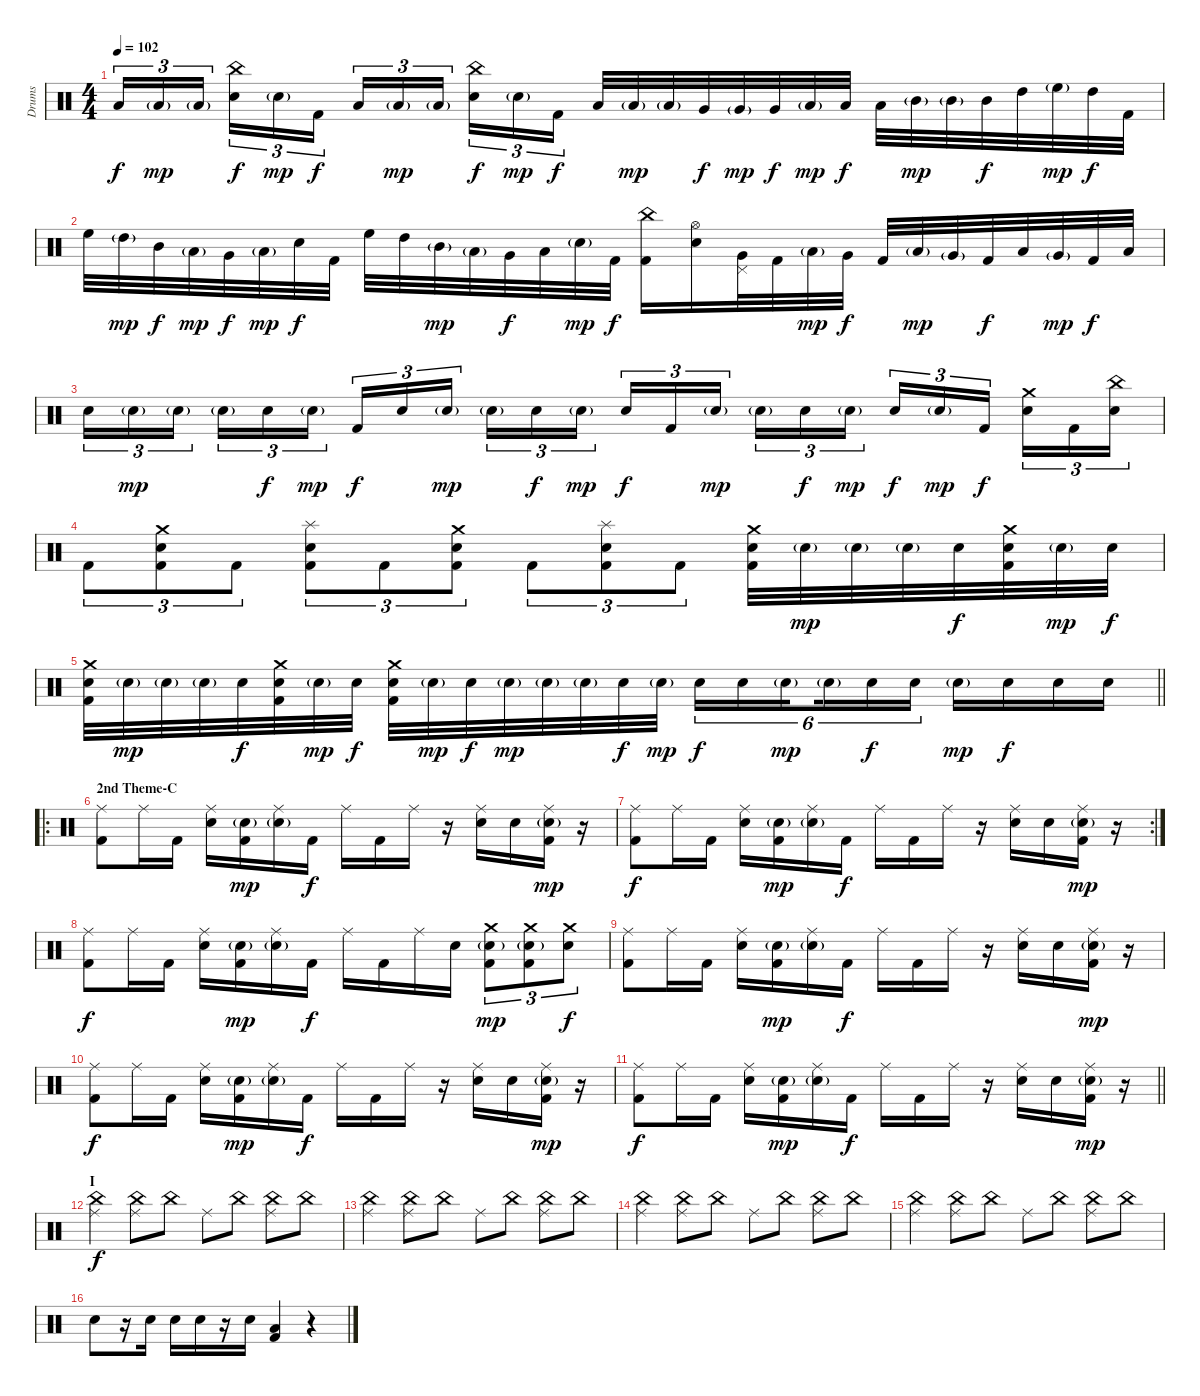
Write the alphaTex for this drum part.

\track ("Drums" "Drums") {instrument percussion}
\staff {score}
\articulation defaults
\ts (4 4)
\tempo 102
\clef neutral
\ks c "Low Floor Tom (hit)".16{tu (3 2) dy f} "Low Floor Tom (hit)"{g}.16{tu (3 2) dy mp} "Low Floor Tom (hit)"{g}.16{tu (3 2) beam splitsecondary}
("China (hit)" "Electric Snare (hit)").16{tu (3 2) dy f} "Electric Snare (hit)"{g}.16{tu (3 2) dy mp} "Kick (hit) 2".16{tu (3 2) dy f} "Low Floor Tom (hit)".16{tu (3 2)} "Low Floor Tom (hit)"{g}.16{tu (3 2) dy mp} "Low Floor Tom (hit)"{g}.16{tu (3 2) beam splitsecondary} ("China (hit)" "Electric Snare (hit)").16{tu (3 2) dy f} "Electric Snare (hit)"{g}.16{tu (3 2) dy mp} "Kick (hit) 2".16{tu (3 2) dy f} "Low Floor Tom (hit)".32 "Low Floor Tom (hit)"{g}.32{dy mp} "Low Floor Tom (hit)"{g}.32 "Very Low Tom (hit)".32{dy f} "Very Low Tom (hit)"{g}.32{dy mp} "Very Low Tom (hit)".32{dy f} "Low Tom (hit)"{g}.32{dy mp} "Low Tom (hit)".32{dy f} "Low Tom (hit)".32 "Mid Tom (hit)"{g}.32{dy mp} "Mid Tom (hit)"{g}.32 "Mid Tom (hit)".32{dy f} "High Tom (hit)".32 "High Floor Tom (hit)"{g}.32{dy mp} "High Tom (hit)".32{dy f} "Kick (hit) 2".32 |
"High Floor Tom (hit)".32 "High Tom (hit)"{g}.32{dy mp} "Mid Tom (hit)".32{dy f} "Low Tom (hit)"{g}.32{dy mp} "Very Low Tom (hit)".32{dy f} "Low Floor Tom (hit)"{g}.32{dy mp} "Electric Snare (hit)".32{dy f} "Kick (hit) 2".32 "High Floor Tom (hit)".32 "High Tom (hit)".32 "Mid Tom (hit)"{g}.32{dy mp} "Low Tom (hit)"{g}.32 "Very Low Tom (hit)".32{dy f} "Low Floor Tom (hit)".32 "Electric Snare (hit)"{g}.32{dy mp} "Kick (hit) 2".32{dy f} ("China (hit)" "Kick (hit) 2").16 ("Hi-Hat (open)" "Electric Snare (hit)").16 ("Pedal Hi-Hat (hit)" "Very Low Tom (hit)").32 "Kick (hit) 2".32 "Low Floor Tom (hit)"{g}.32{dy mp} "Very Low Tom (hit)".32{dy f} "Kick (hit) 2".32 "Low Floor Tom (hit)"{g}.32{dy mp} "Very Low Tom (hit)"{g}.32 "Kick (hit) 2".32{dy f} "Low Floor Tom (hit)".32 "Very Low Tom (hit)"{g}.32{dy mp} "Kick (hit) 2".32{dy f} "Low Floor Tom (hit)".32 |
"Electric Snare (hit)".16{tu (3 2)} "Electric Snare (hit)"{g}.16{tu (3 2) dy mp} "Electric Snare (hit)"{g}.16{tu (3 2) beam splitsecondary} "Electric Snare (hit)"{g}.16{tu (3 2)} "Electric Snare (hit)".16{tu (3 2) dy f} "Electric Snare (hit)"{g}.16{tu (3 2) dy mp} "Kick (hit) 2".16{tu (3 2) dy f} "Electric Snare (hit)".16{tu (3 2)} "Electric Snare (hit)"{g}.16{tu (3 2) dy mp beam splitsecondary} "Electric Snare (hit)"{g}.16{tu (3 2)} "Electric Snare (hit)".16{tu (3 2) dy f} "Electric Snare (hit)"{g}.16{tu (3 2) dy mp} "Electric Snare (hit)".16{tu (3 2) dy f} "Kick (hit) 2".16{tu (3 2)} "Electric Snare (hit)"{g}.16{tu (3 2) dy mp beam splitsecondary} "Electric Snare (hit)"{g}.16{tu (3 2)} "Electric Snare (hit)".16{tu (3 2) dy f} "Electric Snare (hit)"{g}.16{tu (3 2) dy mp} "Electric Snare (hit)".16{tu (3 2) dy f} "Electric Snare (hit)"{g}.16{tu (3 2) dy mp} "Kick (hit) 2".16{tu (3 2) dy f beam splitsecondary} ("Crash medium (hit)" "Electric Snare (hit)").16{tu (3 2)} "Kick (hit) 2".16{tu (3 2)} ("China (hit)" "Electric Snare (hit)").16{tu (3 2)} |
"Kick (hit) 2".8{tu (3 2)} ("Crash medium (hit)" "Electric Snare (hit)" "Kick (hit) 2").8{tu (3 2)} "Kick (hit) 2".8{tu (3 2)} ("Splash (hit)" "Electric Snare (hit)" "Kick (hit) 2").8{tu (3 2)} "Kick (hit) 2".8{tu (3 2)} ("Crash medium (hit)" "Electric Snare (hit)" "Kick (hit) 2").8{tu (3 2)} "Kick (hit) 2".8{tu (3 2)} ("Splash (hit)" "Electric Snare (hit)" "Kick (hit) 2").8{tu (3 2)} "Kick (hit) 2".8{tu (3 2)} ("Crash medium (hit)" "Electric Snare (hit)" "Kick (hit) 2").32 "Electric Snare (hit)"{g}.32{dy mp} "Electric Snare (hit)"{g}.32 "Electric Snare (hit)"{g}.32 "Electric Snare (hit)".32{dy f} ("Crash medium (hit)" "Electric Snare (hit)" "Kick (hit) 2").32 "Electric Snare (hit)"{g}.32{dy mp} "Electric Snare (hit)".32{dy f} |
\barLineRight lightlight
("Crash medium (hit)" "Electric Snare (hit)" "Kick (hit) 2").32 "Electric Snare (hit)"{g}.32{dy mp} "Electric Snare (hit)"{g}.32 "Electric Snare (hit)"{g}.32 "Electric Snare (hit)".32{dy f} ("Crash medium (hit)" "Electric Snare (hit)" "Kick (hit) 2").32 "Electric Snare (hit)"{g}.32{dy mp} "Electric Snare (hit)".32{dy f} ("Crash medium (hit)" "Electric Snare (hit)" "Kick (hit) 2").32 "Electric Snare (hit)"{g}.32{dy mp} "Electric Snare (hit)".32{dy f} "Electric Snare (hit)"{g}.32{dy mp} "Electric Snare (hit)"{g}.32 "Electric Snare (hit)"{g}.32 "Electric Snare (hit)".32{dy f} "Electric Snare (hit)"{g}.32{dy mp} "Electric Snare (hit)".16{tu (6 4) dy f} "Electric Snare (hit)".16{tu (6 4)} "Electric Snare (hit)"{g}.16{tu (6 4) dy mp beam splitsecondary} "Electric Snare (hit)"{g}.16{tu (6 4)} "Electric Snare (hit)".16{tu (6 4) dy f} "Electric Snare (hit)".16{tu (6 4)} "Electric Snare (hit)"{g}.16{dy mp} "Electric Snare (hit)".16{dy f} "Electric Snare (hit)".16 "Electric Snare (hit)".16 |
\ro
\section ("" "2nd Theme-C")
("Ride (middle)" "Kick (hit) 2").8 "Ride (middle)".16 "Kick (hit) 2".16 ("Ride (middle)" "Electric Snare (hit)").16 ("Electric Snare (hit)"{g} "Kick (hit) 2").16{dy mp} ("Ride (middle)" "Electric Snare (hit)"{g}).16 "Kick (hit) 2".16{dy f} "Ride (middle)".16 "Kick (hit) 2".16 "Ride (middle)".16 r.16 ("Ride (middle)" "Electric Snare (hit)").16 "Electric Snare (hit)".16 ("Ride (middle)" "Electric Snare (hit)"{g} "Kick (hit) 2").16{dy mp} r.16 |
\rc 2
("Ride (middle)" "Kick (hit) 2").8{dy f} "Ride (middle)".16 "Kick (hit) 2".16 ("Ride (middle)" "Electric Snare (hit)").16 ("Electric Snare (hit)"{g} "Kick (hit) 2").16{dy mp} ("Ride (middle)" "Electric Snare (hit)"{g}).16 "Kick (hit) 2".16{dy f} "Ride (middle)".16 "Kick (hit) 2".16 "Ride (middle)".16 r.16 ("Ride (middle)" "Electric Snare (hit)").16 "Electric Snare (hit)".16 ("Ride (middle)" "Electric Snare (hit)"{g} "Kick (hit) 2").16{dy mp} r.16 |
("Ride (middle)" "Kick (hit) 2").8{dy f} "Ride (middle)".16 "Kick (hit) 2".16 ("Ride (middle)" "Electric Snare (hit)").16 ("Electric Snare (hit)"{g} "Kick (hit) 2").16{dy mp} ("Ride (middle)" "Electric Snare (hit)"{g}).16 "Kick (hit) 2".16{dy f} "Ride (middle)".16 "Kick (hit) 2".16 "Ride (middle)".16 "Electric Snare (hit)".16 ("Crash medium (hit)" "Electric Snare (hit)"{g} "Kick (hit) 2").8{tu (3 2) dy mp} ("Crash medium (hit)" "Electric Snare (hit)"{g} "Kick (hit) 2").8{tu (3 2)} ("Crash medium (hit)" "Electric Snare (hit)").8{tu (3 2) dy f} |
("Ride (middle)" "Kick (hit) 2").8 "Ride (middle)".16 "Kick (hit) 2".16 ("Ride (middle)" "Electric Snare (hit)").16 ("Electric Snare (hit)"{g} "Kick (hit) 2").16{dy mp} ("Ride (middle)" "Electric Snare (hit)"{g}).16 "Kick (hit) 2".16{dy f} "Ride (middle)".16 "Kick (hit) 2".16 "Ride (middle)".16 r.16 ("Ride (middle)" "Electric Snare (hit)").16 "Electric Snare (hit)".16 ("Ride (middle)" "Electric Snare (hit)"{g} "Kick (hit) 2").16{dy mp} r.16 |
("Ride (middle)" "Kick (hit) 2").8{dy f} "Ride (middle)".16 "Kick (hit) 2".16 ("Ride (middle)" "Electric Snare (hit)").16 ("Electric Snare (hit)"{g} "Kick (hit) 2").16{dy mp} ("Ride (middle)" "Electric Snare (hit)"{g}).16 "Kick (hit) 2".16{dy f} "Ride (middle)".16 "Kick (hit) 2".16 "Ride (middle)".16 r.16 ("Ride (middle)" "Electric Snare (hit)").16 "Electric Snare (hit)".16 ("Ride (middle)" "Electric Snare (hit)"{g} "Kick (hit) 2").16{dy mp} r.16 |
\barLineRight lightlight
("Ride (middle)" "Kick (hit) 2").8{dy f} "Ride (middle)".16 "Kick (hit) 2".16 ("Ride (middle)" "Electric Snare (hit)").16 ("Electric Snare (hit)"{g} "Kick (hit) 2").16{dy mp} ("Ride (middle)" "Electric Snare (hit)"{g}).16 "Kick (hit) 2".16{dy f} "Ride (middle)".16 "Kick (hit) 2".16 "Ride (middle)".16 r.16 ("Ride (middle)" "Electric Snare (hit)").16 "Electric Snare (hit)".16 ("Ride (middle)" "Electric Snare (hit)"{g} "Kick (hit) 2").16{dy mp} r.16 |
\section ("" "I")
("Ride (middle)" "China (hit)").4{dy f} ("Ride (middle)" "China (hit)").8 "China (hit)".8 "Ride (middle)".8 "China (hit)".8 ("Ride (middle)" "China (hit)").8 "China (hit)".8 |
("Ride (middle)" "China (hit)").4 ("Ride (middle)" "China (hit)").8 "China (hit)".8 "Ride (middle)".8 "China (hit)".8 ("Ride (middle)" "China (hit)").8 "China (hit)".8 |
("Ride (middle)" "China (hit)").4 ("Ride (middle)" "China (hit)").8 "China (hit)".8 "Ride (middle)".8 "China (hit)".8 ("Ride (middle)" "China (hit)").8 "China (hit)".8 |
("Ride (middle)" "China (hit)").4 ("Ride (middle)" "China (hit)").8 "China (hit)".8 "Ride (middle)".8 "China (hit)".8 ("Ride (middle)" "China (hit)").8 "China (hit)".8 |
"Electric Snare (hit)".8 r.16 "Electric Snare (hit)".16 "Electric Snare (hit)".16 "Electric Snare (hit)".16 r.16 "Electric Snare (hit)".16 ("Low Floor Tom (hit)" "Kick (hit) 2").4 r.4
